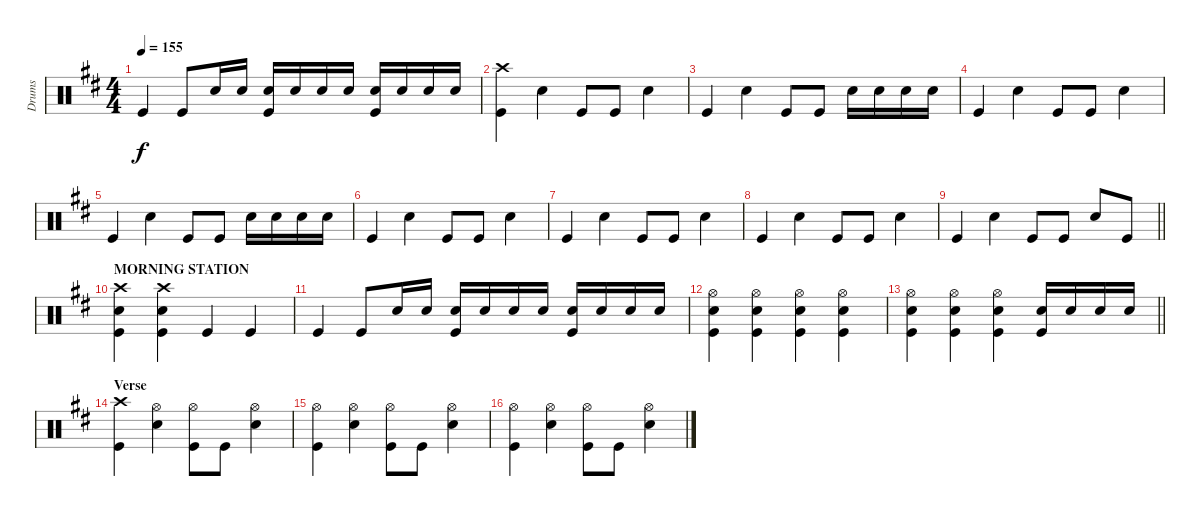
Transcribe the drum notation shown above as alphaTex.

\track ("Drums" "Drums") {instrument percussion}
\staff {score}
\articulation defaults
\ts (4 4)
\tempo 155
\clef neutral
\ks d "Kick (hit)".4{dy f} "Kick (hit)".8 "Snare (hit) 2".16 "Snare (hit) 2".16
("Snare (hit) 2" "Kick (hit)").16 "Snare (hit) 2".16 "Snare (hit) 2".16 "Snare (hit) 2".16 ("Snare (hit) 2" "Kick (hit)").16 "Snare (hit) 2".16 "Snare (hit) 2".16 "Snare (hit) 2".16 |
("Crash high (hit)" "Kick (hit)").4 "Snare (hit) 2".4 "Kick (hit)".8 "Kick (hit)".8 "Snare (hit) 2".4 |
"Kick (hit)".4 "Snare (hit) 2".4 "Kick (hit)".8 "Kick (hit)".8 "Snare (hit) 2".16 "Snare (hit) 2".16 "Snare (hit) 2".16 "Snare (hit) 2".16 |
"Kick (hit)".4 "Snare (hit) 2".4 "Kick (hit)".8 "Kick (hit)".8 "Snare (hit) 2".4 |
"Kick (hit)".4 "Snare (hit) 2".4 "Kick (hit)".8 "Kick (hit)".8 "Snare (hit) 2".16 "Snare (hit) 2".16 "Snare (hit) 2".16 "Snare (hit) 2".16 |
"Kick (hit)".4 "Snare (hit) 2".4 "Kick (hit)".8 "Kick (hit)".8 "Snare (hit) 2".4 |
"Kick (hit)".4 "Snare (hit) 2".4 "Kick (hit)".8 "Kick (hit)".8 "Snare (hit) 2".4 |
"Kick (hit)".4 "Snare (hit) 2".4 "Kick (hit)".8 "Kick (hit)".8 "Snare (hit) 2".4 |
\barLineRight lightlight "Kick (hit)".4 "Snare (hit) 2".4 "Kick (hit)".8 "Kick (hit)".8 "Snare (hit) 2".8 "Kick (hit)".8
|
\section ("" "MORNING STATION")
("Crash high (hit)" "Snare (hit) 2" "Kick (hit)").4 ("Crash high (hit)" "Snare (hit) 2" "Kick (hit)").4 "Kick (hit)".4 "Kick (hit)".4 |
"Kick (hit)".4 "Kick (hit)".8 "Snare (hit) 2".16 "Snare (hit) 2".16 ("Snare (hit) 2" "Kick (hit)").16 "Snare (hit) 2".16 "Snare (hit) 2".16 "Snare (hit) 2".16 ("Snare (hit) 2" "Kick (hit)").16 "Snare (hit) 2".16 "Snare (hit) 2".16 "Snare (hit) 2".16 |
("Hi-Hat (open)" "Snare (hit) 2" "Kick (hit)").4 ("Hi-Hat (open)" "Snare (hit) 2" "Kick (hit)").4 ("Hi-Hat (open)" "Snare (hit) 2" "Kick (hit)").4 ("Hi-Hat (open)" "Snare (hit) 2" "Kick (hit)").4 |
\barLineRight lightlight
("Hi-Hat (open)" "Snare (hit) 2" "Kick (hit)").4 ("Hi-Hat (open)" "Snare (hit) 2" "Kick (hit)").4 ("Hi-Hat (open)" "Snare (hit) 2" "Kick (hit)").4 ("Snare (hit) 2" "Kick (hit)").16 "Snare (hit) 2".16 "Snare (hit) 2".16 "Snare (hit) 2".16 |
\section ("" "Verse")
("Crash high (hit)" "Kick (hit)").4 ("Hi-Hat (open)" "Snare (hit) 2").4 ("Hi-Hat (open)" "Kick (hit)").8 "Kick (hit)".8 ("Hi-Hat (open)" "Snare (hit) 2").4 |
("Hi-Hat (open)" "Kick (hit)").4 ("Hi-Hat (open)" "Snare (hit) 2").4 ("Hi-Hat (open)" "Kick (hit)").8 "Kick (hit)".8 ("Hi-Hat (open)" "Snare (hit) 2").4 |
("Hi-Hat (open)" "Kick (hit)").4 ("Hi-Hat (open)" "Snare (hit) 2").4 ("Hi-Hat (open)" "Kick (hit)").8 "Kick (hit)".8 ("Hi-Hat (open)" "Snare (hit) 2").4
